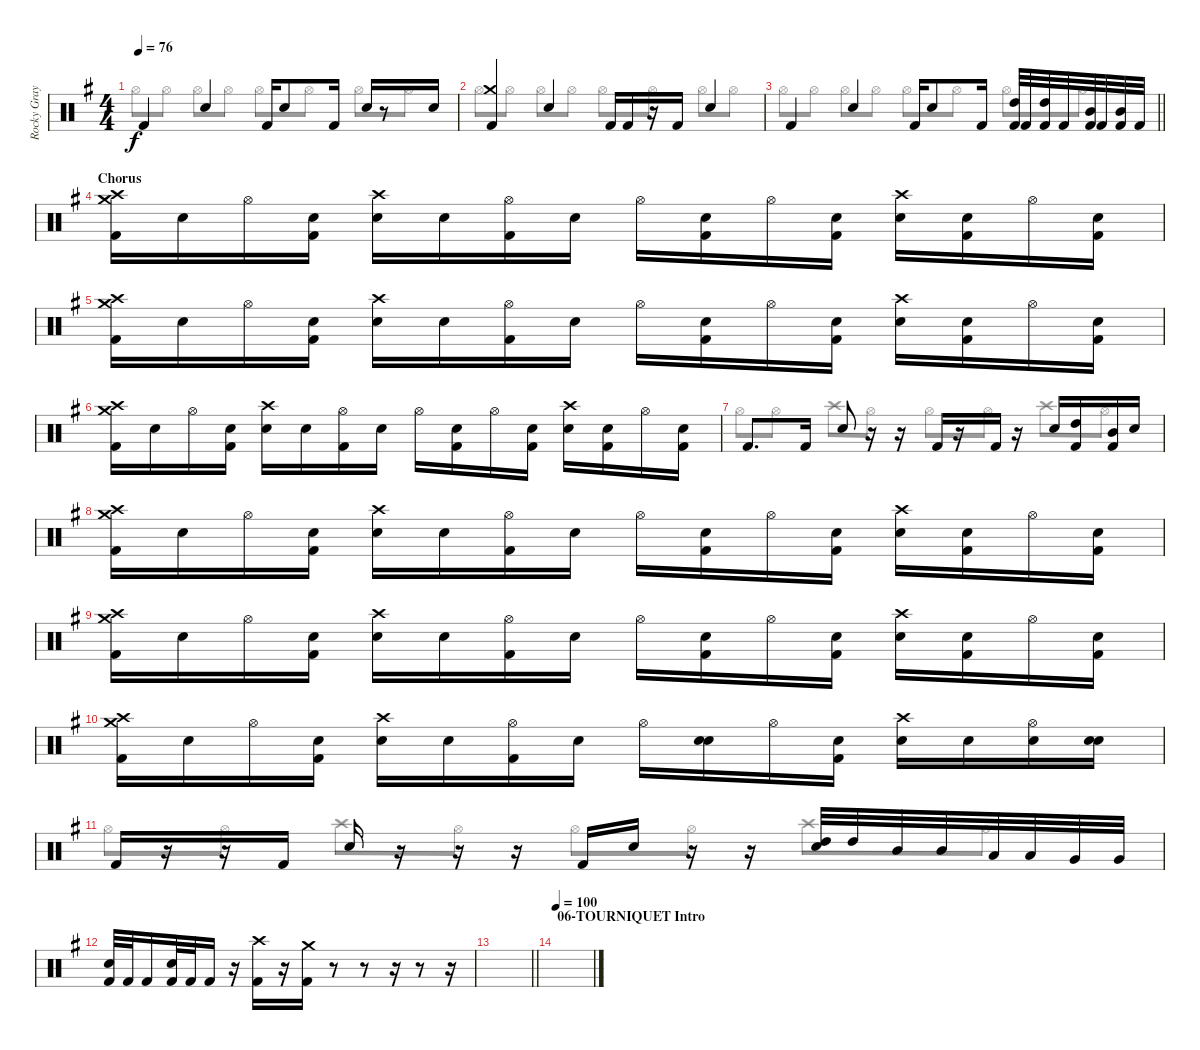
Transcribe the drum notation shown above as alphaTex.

\track ("Rocky Gray" "Rocky Gray") {instrument percussion}
\staff {score}
\articulation defaults
\voice
\ts (4 4)
\tempo 76
\clef neutral
\ks g "Kick (hit) 2".4{dy f} "Electric Snare (hit)".4 "Kick (hit) 2".16 "Electric Snare (hit)".8 "Kick (hit) 2".16 "Electric Snare (hit)".16
r.8 "Electric Snare (hit)".16 |
("Crash medium (hit)" "Kick (hit) 2").4 "Electric Snare (hit)".4 "Kick (hit) 2".16 "Kick (hit) 2".16 r.16 "Kick (hit) 2".16 "Electric Snare (hit)".4 |
\barLineRight lightlight "Kick (hit) 2".4 "Electric Snare (hit)".4 "Kick (hit) 2".16 "Electric Snare (hit)".8 "Kick (hit) 2".16
("High Tom (hit)" "Kick (hit) 2").32 "Kick (hit) 2".32 ("High Tom (hit)" "Kick (hit) 2").32 "Kick (hit) 2".32 ("Mid Tom (hit)" "Kick (hit) 2").32 "Kick (hit) 2".32 ("Mid Tom (hit)" "Kick (hit) 2").32 "Kick (hit) 2".32 |
\section ("" "Chorus")
("Crash high (hit)" "Crash medium (hit)" "Kick (hit) 2").16 "Snare (hit)".16 "Hi-Hat (open)".16 ("Snare (hit)" "Kick (hit) 2").16 ("Crash high (hit)" "Electric Snare (hit)").16 "Snare (hit)".16 ("Hi-Hat (open)" "Kick (hit) 2").16 "Snare (hit)".16 "Hi-Hat (open)".16 ("Snare (hit)" "Kick (hit) 2").16 "Hi-Hat (open)".16 ("Snare (hit)" "Kick (hit) 2").16 ("Crash high (hit)" "Electric Snare (hit)").16 ("Snare (hit)" "Kick (hit) 2").16 "Hi-Hat (open)".16 ("Snare (hit)" "Kick (hit) 2").16 |
("Crash high (hit)" "Crash medium (hit)" "Kick (hit) 2").16 "Snare (hit)".16 "Hi-Hat (open)".16 ("Snare (hit)" "Kick (hit) 2").16 ("Crash high (hit)" "Electric Snare (hit)").16 "Snare (hit)".16 ("Hi-Hat (open)" "Kick (hit) 2").16 "Snare (hit)".16 "Hi-Hat (open)".16 ("Snare (hit)" "Kick (hit) 2").16 "Hi-Hat (open)".16 ("Snare (hit)" "Kick (hit) 2").16 ("Crash high (hit)" "Electric Snare (hit)").16 ("Snare (hit)" "Kick (hit) 2").16 "Hi-Hat (open)".16 ("Snare (hit)" "Kick (hit) 2").16 |
("Crash high (hit)" "Crash medium (hit)" "Kick (hit) 2").16 "Snare (hit)".16 "Hi-Hat (open)".16 ("Snare (hit)" "Kick (hit) 2").16 ("Crash high (hit)" "Electric Snare (hit)").16 "Snare (hit)".16 ("Hi-Hat (open)" "Kick (hit) 2").16 "Snare (hit)".16 "Hi-Hat (open)".16 ("Snare (hit)" "Kick (hit) 2").16 "Hi-Hat (open)".16 ("Snare (hit)" "Kick (hit) 2").16 ("Crash high (hit)" "Electric Snare (hit)").16 ("Snare (hit)" "Kick (hit) 2").16 "Hi-Hat (open)".16 ("Snare (hit)" "Kick (hit) 2").16 |
"Kick (hit) 2".8{d} "Kick (hit) 2".16 "Electric Snare (hit)".8 r.16 r.16 "Kick (hit) 2".16 r.16 "Kick (hit) 2".16 r.16 "Electric Snare (hit)".16 ("High Tom (hit)" "Kick (hit) 2").16 ("Mid Tom (hit)" "Kick (hit) 2").16 "Electric Snare (hit)".16 |
("Crash high (hit)" "Crash medium (hit)" "Kick (hit) 2").16 "Snare (hit)".16 "Hi-Hat (open)".16 ("Snare (hit)" "Kick (hit) 2").16 ("Crash high (hit)" "Electric Snare (hit)").16 "Snare (hit)".16 ("Hi-Hat (open)" "Kick (hit) 2").16 "Snare (hit)".16 "Hi-Hat (open)".16 ("Snare (hit)" "Kick (hit) 2").16 "Hi-Hat (open)".16 ("Snare (hit)" "Kick (hit) 2").16 ("Crash high (hit)" "Electric Snare (hit)").16 ("Snare (hit)" "Kick (hit) 2").16 "Hi-Hat (open)".16 ("Snare (hit)" "Kick (hit) 2").16 |
("Crash high (hit)" "Crash medium (hit)" "Kick (hit) 2").16 "Snare (hit)".16 "Hi-Hat (open)".16 ("Snare (hit)" "Kick (hit) 2").16 ("Crash high (hit)" "Electric Snare (hit)").16 "Snare (hit)".16 ("Hi-Hat (open)" "Kick (hit) 2").16 "Snare (hit)".16 "Hi-Hat (open)".16 ("Snare (hit)" "Kick (hit) 2").16 "Hi-Hat (open)".16 ("Snare (hit)" "Kick (hit) 2").16 ("Crash high (hit)" "Electric Snare (hit)").16 ("Snare (hit)" "Kick (hit) 2").16 "Hi-Hat (open)".16 ("Snare (hit)" "Kick (hit) 2").16 |
("Crash high (hit)" "Crash medium (hit)" "Kick (hit) 2").16 "Snare (hit)".16 "Hi-Hat (open)".16 ("Snare (hit)" "Kick (hit) 2").16 ("Crash high (hit)" "Electric Snare (hit)").16 "Snare (hit)".16 ("Hi-Hat (open)" "Kick (hit) 2").16 "Snare (hit)".16 "Hi-Hat (open)".16 ("Snare (hit)" "Electric Snare (hit)").16 "Hi-Hat (open)".16 ("Snare (hit)" "Kick (hit) 2").16 ("Crash high (hit)" "Electric Snare (hit)").16 "Snare (hit)".16 ("Hi-Hat (open)" "Electric Snare (hit)").16 ("Snare (hit)" "Electric Snare (hit)").16 |
"Kick (hit) 2".16 r.16 r.16 "Kick (hit) 2".16 "Electric Snare (hit)".16 r.16 r.16 r.16 "Kick (hit) 2".16 "Electric Snare (hit)".16 r.16 r.16 ("High Tom (hit)" "Electric Snare (hit)").32 "High Tom (hit)".32 "Mid Tom (hit)".32 "Mid Tom (hit)".32 "Low Tom (hit)".32 "Low Tom (hit)".32 "Very Low Tom (hit)".32 "Very Low Tom (hit)".32 |
("Electric Snare (hit)" "Kick (hit) 2").32 "Kick (hit) 2".32 "Kick (hit) 2".16 ("Electric Snare (hit)" "Kick (hit) 2").32 "Kick (hit) 2".32 "Kick (hit) 2".16 r.16 ("Crash high (hit)" "Kick (hit) 2").16 r.16 ("Crash medium (hit)" "Kick (hit) 2").16 r.8 r.8 r.16 r.8 r.16 |
\barLineRight lightlight
|
\section ("" "06-TOURNIQUET Intro")
\tempo 100
|
|
\voice
\clef neutral
\ottava regular
\simile none
\ks g "Hi-Hat (open)".8{dy f} "Hi-Hat (open)".8 "Hi-Hat (open)".8 "Hi-Hat (open)".8 "Hi-Hat (open)".8 "Hi-Hat (open)".8 "Hi-Hat (open)".8 "Hi-Hat (open)".8
|
"Hi-Hat (open)".8 "Hi-Hat (open)".8 "Hi-Hat (open)".8 "Hi-Hat (open)".8 "Hi-Hat (open)".8 "Hi-Hat (open)".8 "Hi-Hat (open)".8 "Hi-Hat (open)".8 |
\barLineRight lightlight "Hi-Hat (open)".8 "Hi-Hat (open)".8 "Hi-Hat (open)".8 "Hi-Hat (open)".8 "Hi-Hat (open)".8 "Hi-Hat (open)".8 "Hi-Hat (open)".8 "Hi-Hat (open)".8
|
|
|
|
"Hi-Hat (open)".8 "Hi-Hat (open)".8 "Crash high (hit)".8 "Hi-Hat (open)".8 "Hi-Hat (open)".8 "Hi-Hat (open)".8 "Crash high (hit)".8 "Hi-Hat (open)".8 |
|
|
|
"Hi-Hat (open)".8 "Hi-Hat (open)".8 "Crash high (hit)".8 "Hi-Hat (open)".8 "Hi-Hat (open)".8 "Hi-Hat (open)".8 "Crash high (hit)".8 "Hi-Hat (open)".8 |
|
\barLineRight lightlight
|
|
|
